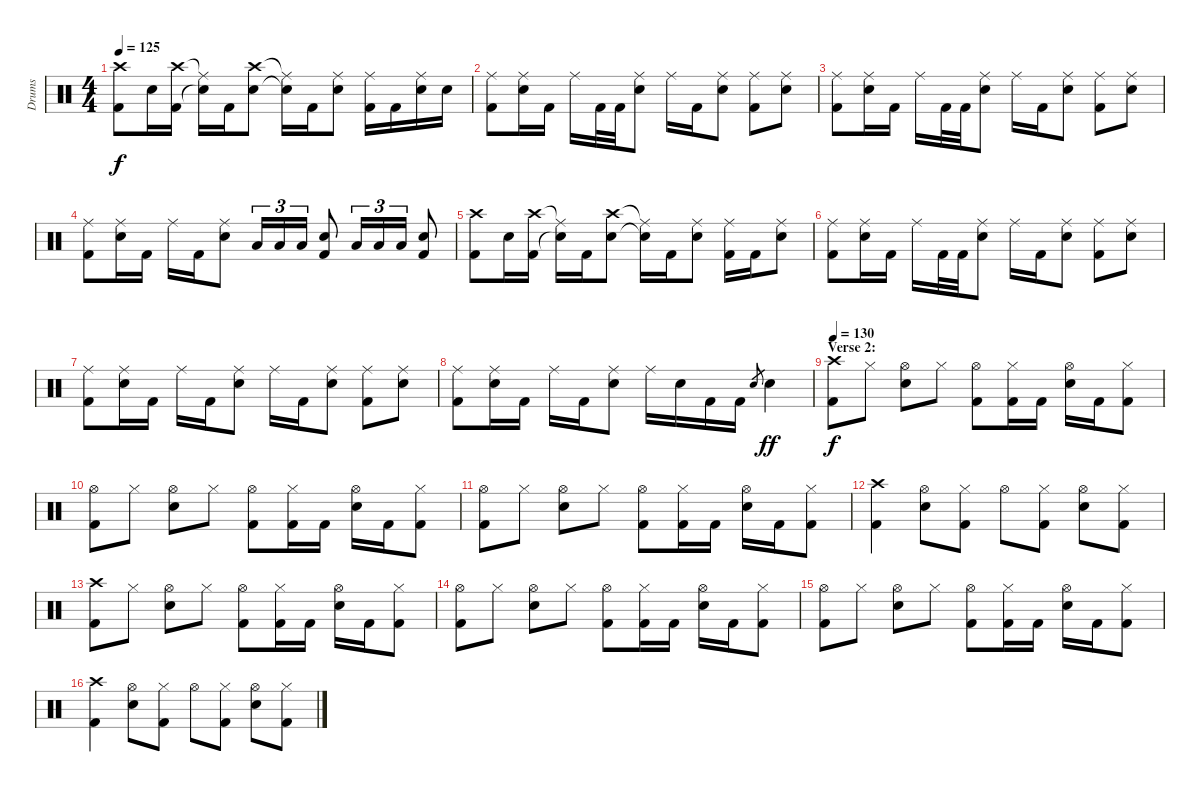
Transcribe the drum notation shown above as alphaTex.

\track ("Drums" "Drums") {instrument percussion}
\staff {score}
\articulation defaults
\ts (4 4)
\tempo 125
\clef neutral
\ks c
("Crash high (hit)" "Kick (hit) 2").8{dy f} "Electric Snare (hit)".16 ("Crash high (hit)" "Kick (hit) 2").16 ("Ride (middle)"{t} "Snare (hit)"{t}).16 "Kick (hit) 2".16 ("Crash high (hit)" "Electric Snare (hit)").8 ("Ride (middle)"{t} "Snare (hit)"{t}).16 "Kick (hit) 2".16 ("Ride (middle)" "Electric Snare (hit)").8 ("Ride (middle)" "Kick (hit) 2").16 "Kick (hit) 2".16 ("Ride (middle)" "Electric Snare (hit)").16 "Electric Snare (hit)".16 |
("Ride (middle)" "Kick (hit) 2").8 ("Ride (middle)" "Electric Snare (hit)").16 "Kick (hit) 2".16 "Ride (middle)".16 "Kick (hit) 2".32 "Kick (hit) 2".32 ("Ride (middle)" "Electric Snare (hit)").8 "Ride (middle)".16 "Kick (hit) 2".16 ("Ride (middle)" "Electric Snare (hit)").8 ("Ride (middle)" "Kick (hit) 2").8 ("Ride (middle)" "Electric Snare (hit)").8 |
("Ride (middle)" "Kick (hit) 2").8 ("Ride (middle)" "Electric Snare (hit)").16 "Kick (hit) 2".16 "Ride (middle)".16 "Kick (hit) 2".32 "Kick (hit) 2".32 ("Ride (middle)" "Electric Snare (hit)").8 "Ride (middle)".16 "Kick (hit) 2".16 ("Ride (middle)" "Electric Snare (hit)").8 ("Ride (middle)" "Kick (hit) 2").8 ("Ride (middle)" "Electric Snare (hit)").8 |
("Ride (middle)" "Kick (hit) 2").8 ("Ride (middle)" "Electric Snare (hit)").16 "Kick (hit) 2".16 "Ride (middle)".16 "Kick (hit) 2".16 ("Ride (middle)" "Electric Snare (hit)").8 "Low Tom (hit)".16{tu (3 2)} "Low Tom (hit)".16{tu (3 2)} "Low Tom (hit)".16{tu (3 2)} ("Electric Snare (hit)" "Kick (hit) 2").8 "Low Tom (hit)".16{tu (3 2)} "Low Tom (hit)".16{tu (3 2)} "Low Tom (hit)".16{tu (3 2)} ("Electric Snare (hit)" "Kick (hit) 2").8 |
("Crash high (hit)" "Kick (hit) 2").8 "Electric Snare (hit)".16 ("Crash high (hit)" "Kick (hit) 2").16 ("Ride (middle)"{t} "Snare (hit)"{t}).16 "Kick (hit) 2".16 ("Crash high (hit)" "Electric Snare (hit)").8 ("Ride (middle)"{t} "Snare (hit)"{t}).16 "Kick (hit) 2".16 ("Ride (middle)" "Electric Snare (hit)").8 ("Ride (middle)" "Kick (hit) 2").16 "Kick (hit) 2".16 ("Ride (middle)" "Electric Snare (hit)").8 |
("Ride (middle)" "Kick (hit) 2").8 ("Ride (middle)" "Electric Snare (hit)").16 "Kick (hit) 2".16 "Ride (middle)".16 "Kick (hit) 2".32 "Kick (hit) 2".32 ("Ride (middle)" "Electric Snare (hit)").8 "Ride (middle)".16 "Kick (hit) 2".16 ("Ride (middle)" "Electric Snare (hit)").8 ("Ride (middle)" "Kick (hit) 2").8 ("Ride (middle)" "Electric Snare (hit)").8 |
("Ride (middle)" "Kick (hit) 2").8 ("Ride (middle)" "Electric Snare (hit)").16 "Kick (hit) 2".16 "Ride (middle)".16 "Kick (hit) 2".16 ("Ride (middle)" "Electric Snare (hit)").8 "Ride (middle)".16 "Kick (hit) 2".16 ("Ride (middle)" "Electric Snare (hit)").8 ("Ride (middle)" "Kick (hit) 2").8 ("Ride (middle)" "Electric Snare (hit)").8 |
("Ride (middle)" "Kick (hit) 2").8 ("Ride (middle)" "Electric Snare (hit)").16 "Kick (hit) 2".16 "Ride (middle)".16 "Kick (hit) 2".16 ("Ride (middle)" "Electric Snare (hit)").8 "Ride (middle)".16 "Electric Snare (hit)".16 "Kick (hit) 2".16 "Kick (hit) 2".16 "Electric Snare (hit)".8{gr} "Electric Snare (hit)".4{dy ff} |
\section ("" "Verse 2:")
\tempo 130
("Crash high (hit)" "Kick (hit) 2").8{dy f} "Hi-Hat (closed)".8 ("Hi-Hat (open)" "Electric Snare (hit)").8 "Hi-Hat (closed)".8 ("Hi-Hat (open)" "Kick (hit) 2").8 ("Hi-Hat (closed)" "Kick (hit) 2").16 "Kick (hit) 2".16 ("Hi-Hat (open)" "Electric Snare (hit)").16 "Kick (hit) 2".16 ("Hi-Hat (closed)" "Kick (hit) 2").8 |
("Hi-Hat (open)" "Kick (hit) 2").8 "Hi-Hat (closed)".8 ("Hi-Hat (open)" "Electric Snare (hit)").8 "Hi-Hat (closed)".8 ("Hi-Hat (open)" "Kick (hit) 2").8 ("Hi-Hat (closed)" "Kick (hit) 2").16 "Kick (hit) 2".16 ("Hi-Hat (open)" "Electric Snare (hit)").16 "Kick (hit) 2".16 ("Hi-Hat (closed)" "Kick (hit) 2").8 |
("Hi-Hat (open)" "Kick (hit) 2").8 "Hi-Hat (closed)".8 ("Hi-Hat (open)" "Electric Snare (hit)").8 "Hi-Hat (closed)".8 ("Hi-Hat (open)" "Kick (hit) 2").8 ("Hi-Hat (closed)" "Kick (hit) 2").16 "Kick (hit) 2".16 ("Hi-Hat (open)" "Electric Snare (hit)").16 "Kick (hit) 2".16 ("Hi-Hat (closed)" "Kick (hit) 2").8 |
("Crash high (hit)" "Kick (hit) 2").4 ("Hi-Hat (open)" "Electric Snare (hit)").8 ("Hi-Hat (closed)" "Kick (hit) 2").8 "Hi-Hat (open)".8 ("Hi-Hat (closed)" "Kick (hit) 2").8 ("Hi-Hat (open)" "Electric Snare (hit)").8 ("Hi-Hat (closed)" "Kick (hit) 2").8 |
("Crash high (hit)" "Kick (hit) 2").8 "Hi-Hat (closed)".8 ("Hi-Hat (open)" "Electric Snare (hit)").8 "Hi-Hat (closed)".8 ("Hi-Hat (open)" "Kick (hit) 2").8 ("Hi-Hat (closed)" "Kick (hit) 2").16 "Kick (hit) 2".16 ("Hi-Hat (open)" "Electric Snare (hit)").16 "Kick (hit) 2".16 ("Hi-Hat (closed)" "Kick (hit) 2").8 |
("Hi-Hat (open)" "Kick (hit) 2").8 "Hi-Hat (closed)".8 ("Hi-Hat (open)" "Electric Snare (hit)").8 "Hi-Hat (closed)".8 ("Hi-Hat (open)" "Kick (hit) 2").8 ("Hi-Hat (closed)" "Kick (hit) 2").16 "Kick (hit) 2".16 ("Hi-Hat (open)" "Electric Snare (hit)").16 "Kick (hit) 2".16 ("Hi-Hat (closed)" "Kick (hit) 2").8 |
("Hi-Hat (open)" "Kick (hit) 2").8 "Hi-Hat (closed)".8 ("Hi-Hat (open)" "Electric Snare (hit)").8 "Hi-Hat (closed)".8 ("Hi-Hat (open)" "Kick (hit) 2").8 ("Hi-Hat (closed)" "Kick (hit) 2").16 "Kick (hit) 2".16 ("Hi-Hat (open)" "Electric Snare (hit)").16 "Kick (hit) 2".16 ("Hi-Hat (closed)" "Kick (hit) 2").8 |
("Crash high (hit)" "Kick (hit) 2").4 ("Hi-Hat (open)" "Electric Snare (hit)").8 ("Hi-Hat (closed)" "Kick (hit) 2").8 "Hi-Hat (open)".8 ("Hi-Hat (closed)" "Kick (hit) 2").8 ("Hi-Hat (open)" "Electric Snare (hit)").8 ("Hi-Hat (closed)" "Kick (hit) 2").8
